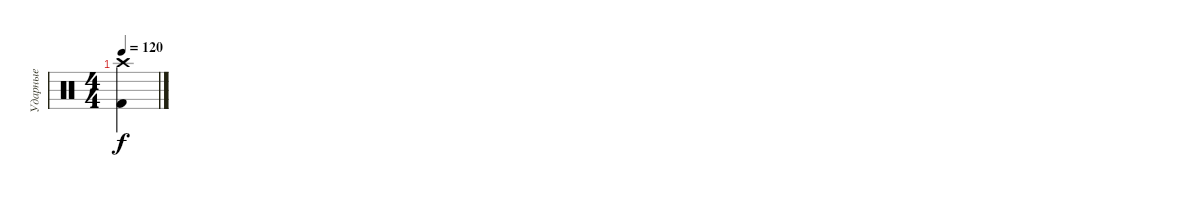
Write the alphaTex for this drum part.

\track ("Ударные" "Ударные") {instrument percussion}
\staff {score}
\articulation defaults
\ts (4 4)
\tempo 120
\clef neutral
\ks c
("Crash high (hit)" "Kick (hit) 2").4{dy f}
